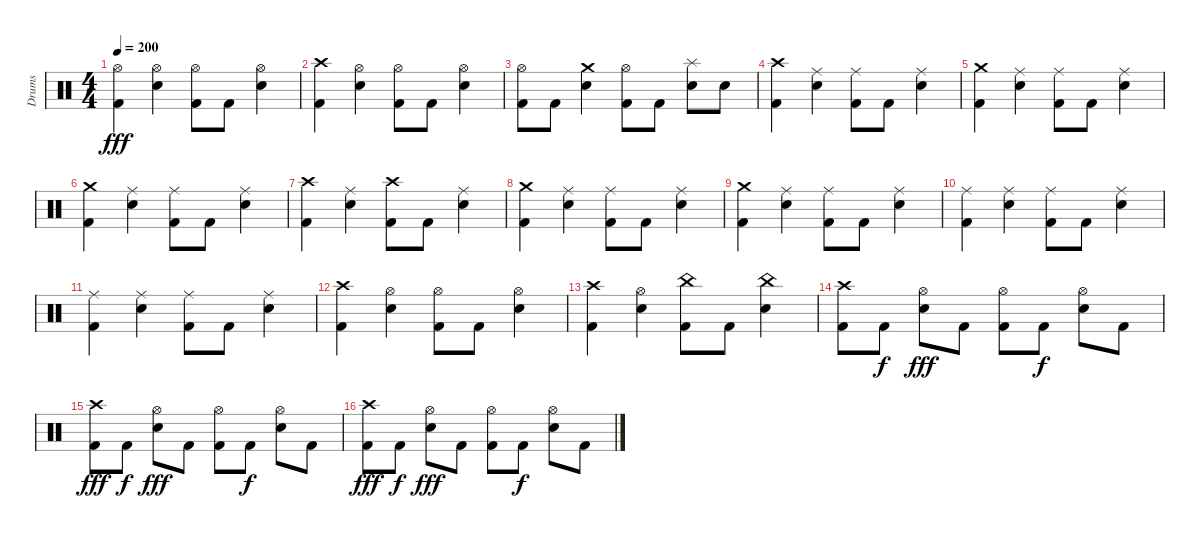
\track ("Drums" "Drums") {instrument percussion}
\staff {score}
\articulation defaults
\ts (4 4)
\tempo 200
\clef neutral
\ks c
("Hi-Hat (open)" "Kick (hit) 2").4{dy fff} ("Hi-Hat (open)" "Electric Snare (hit)").4 ("Hi-Hat (open)" "Kick (hit) 2").8 "Kick (hit) 2".8 ("Hi-Hat (open)" "Electric Snare (hit)").4 |
("Crash high (hit)" "Kick (hit) 2").4 ("Hi-Hat (open)" "Electric Snare (hit)").4 ("Hi-Hat (open)" "Kick (hit) 2").8 "Kick (hit) 2".8 ("Hi-Hat (open)" "Electric Snare (hit)").4 |
("Hi-Hat (open)" "Kick (hit) 2").8 "Kick (hit) 2".8 ("Crash medium (hit)" "Electric Snare (hit)").4 ("Hi-Hat (open)" "Kick (hit) 2").8 "Kick (hit) 2".8 ("Splash (hit)" "Electric Snare (hit)").8 "Electric Snare (hit)".8 |
("Crash high (hit)" "Kick (hit) 2").4 ("Ride (middle)" "Electric Snare (hit)").4 ("Ride (middle)" "Kick (hit) 2").8 "Kick (hit) 2".8 ("Ride (middle)" "Electric Snare (hit)").4 |
("Crash medium (hit)" "Kick (hit) 2").4 ("Ride (middle)" "Electric Snare (hit)").4 ("Ride (middle)" "Kick (hit) 2").8 "Kick (hit) 2".8 ("Ride (middle)" "Electric Snare (hit)").4 |
("Crash medium (hit)" "Kick (hit) 2").4 ("Ride (middle)" "Electric Snare (hit)").4 ("Ride (middle)" "Kick (hit) 2").8 "Kick (hit) 2".8 ("Ride (middle)" "Electric Snare (hit)").4 |
("Crash high (hit)" "Kick (hit) 2").4 ("Ride (middle)" "Electric Snare (hit)").4 ("Crash high (hit)" "Kick (hit) 2").8 "Kick (hit) 2".8 ("Ride (middle)" "Electric Snare (hit)").4 |
("Crash medium (hit)" "Kick (hit) 2").4 ("Ride (middle)" "Electric Snare (hit)").4 ("Ride (middle)" "Kick (hit) 2").8 "Kick (hit) 2".8 ("Ride (middle)" "Electric Snare (hit)").4 |
("Crash medium (hit)" "Kick (hit) 2").4 ("Ride (middle)" "Electric Snare (hit)").4 ("Ride (middle)" "Kick (hit) 2").8 "Kick (hit) 2".8 ("Ride (middle)" "Electric Snare (hit)").4 |
("Ride (middle)" "Kick (hit) 2").4 ("Ride (middle)" "Electric Snare (hit)").4 ("Ride (middle)" "Kick (hit) 2").8 "Kick (hit) 2".8 ("Ride (middle)" "Electric Snare (hit)").4 |
("Ride (middle)" "Kick (hit) 2").4 ("Ride (middle)" "Electric Snare (hit)").4 ("Ride (middle)" "Kick (hit) 2").8 "Kick (hit) 2".8 ("Ride (middle)" "Electric Snare (hit)").4 |
("Crash high (hit)" "Kick (hit) 2").4 ("Hi-Hat (open)" "Electric Snare (hit)").4 ("Hi-Hat (open)" "Kick (hit) 2").8 "Kick (hit) 2".8 ("Hi-Hat (open)" "Electric Snare (hit)").4 |
("Crash high (hit)" "Kick (hit) 2").4 ("Hi-Hat (open)" "Electric Snare (hit)").4 ("China (hit)" "Kick (hit) 2").8 "Kick (hit) 2".8 ("China (hit)" "Electric Snare (hit)").4 |
("Crash high (hit)" "Kick (hit) 2").8 "Kick (hit) 2".8{dy f} ("Hi-Hat (open)" "Electric Snare (hit)").8{dy fff} "Kick (hit) 2".8 ("Hi-Hat (open)" "Kick (hit) 2").8 "Kick (hit) 2".8{dy f} ("Hi-Hat (open)" "Electric Snare (hit)").8 "Kick (hit) 2".8 |
("Crash high (hit)" "Kick (hit) 2").8{dy fff} "Kick (hit) 2".8{dy f} ("Hi-Hat (open)" "Electric Snare (hit)").8{dy fff} "Kick (hit) 2".8 ("Hi-Hat (open)" "Kick (hit) 2").8 "Kick (hit) 2".8{dy f} ("Hi-Hat (open)" "Electric Snare (hit)").8 "Kick (hit) 2".8 |
("Crash high (hit)" "Kick (hit) 2").8{dy fff} "Kick (hit) 2".8{dy f} ("Hi-Hat (open)" "Electric Snare (hit)").8{dy fff} "Kick (hit) 2".8 ("Hi-Hat (open)" "Kick (hit) 2").8 "Kick (hit) 2".8{dy f} ("Hi-Hat (open)" "Electric Snare (hit)").8 "Kick (hit) 2".8
